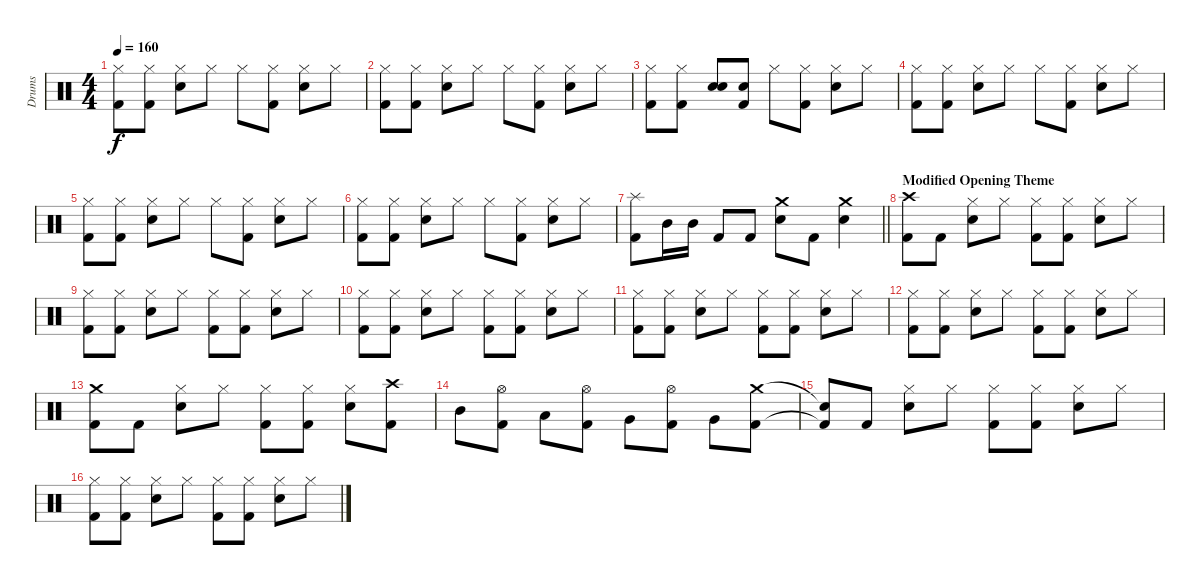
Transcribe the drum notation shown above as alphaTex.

\track ("Drums" "Drums") {instrument percussion}
\staff {score}
\articulation defaults
\ts (4 4)
\tempo 160
\clef neutral
\ks c
("Hi-Hat (closed)" "Kick (hit) 2").8{dy f} ("Hi-Hat (closed)" "Kick (hit) 2").8 ("Hi-Hat (closed)" "Snare (hit) 2").8 "Hi-Hat (closed)".8 "Hi-Hat (closed)".8 ("Hi-Hat (closed)" "Kick (hit) 2").8 ("Hi-Hat (closed)" "Snare (hit) 2").8 "Hi-Hat (closed)".8 |
("Hi-Hat (closed)" "Kick (hit) 2").8 ("Hi-Hat (closed)" "Kick (hit) 2").8 ("Hi-Hat (closed)" "Snare (hit) 2").8 "Hi-Hat (closed)".8 "Hi-Hat (closed)".8 ("Hi-Hat (closed)" "Kick (hit) 2").8 ("Hi-Hat (closed)" "Snare (hit) 2").8 "Hi-Hat (closed)".8 |
("Hi-Hat (closed)" "Kick (hit) 2").8 ("Hi-Hat (closed)" "Kick (hit) 2").8 ("Snare (hit)" "Snare (hit) 2").8 ("Snare (hit)" "Kick (hit) 2").8 "Hi-Hat (closed)".8 ("Hi-Hat (closed)" "Kick (hit) 2").8 ("Hi-Hat (closed)" "Snare (hit) 2").8 "Hi-Hat (closed)".8 |
("Hi-Hat (closed)" "Kick (hit) 2").8 ("Hi-Hat (closed)" "Kick (hit) 2").8 ("Hi-Hat (closed)" "Snare (hit) 2").8 "Hi-Hat (closed)".8 "Hi-Hat (closed)".8 ("Hi-Hat (closed)" "Kick (hit) 2").8 ("Hi-Hat (closed)" "Snare (hit) 2").8 "Hi-Hat (closed)".8 |
("Hi-Hat (closed)" "Kick (hit) 2").8 ("Hi-Hat (closed)" "Kick (hit) 2").8 ("Hi-Hat (closed)" "Snare (hit) 2").8 "Hi-Hat (closed)".8 "Hi-Hat (closed)".8 ("Hi-Hat (closed)" "Kick (hit) 2").8 ("Hi-Hat (closed)" "Snare (hit) 2").8 "Hi-Hat (closed)".8 |
("Hi-Hat (closed)" "Kick (hit) 2").8 ("Hi-Hat (closed)" "Kick (hit) 2").8 ("Hi-Hat (closed)" "Snare (hit) 2").8 "Hi-Hat (closed)".8 "Hi-Hat (closed)".8 ("Hi-Hat (closed)" "Kick (hit) 2").8 ("Hi-Hat (closed)" "Snare (hit) 2").8 "Hi-Hat (closed)".8 |
\barLineRight lightlight
("Splash (hit)" "Kick (hit) 2").8 "Mid Tom (hit)".16 "Mid Tom (hit)".16 "Kick (hit) 2".8 "Kick (hit) 2".8 ("Crash medium (hit)" "Snare (hit) 2").8 "Kick (hit) 2".8 ("Crash medium (hit)" "Snare (hit) 2").4 |
\section ("" "Modified Opening Theme")
("Crash high (hit)" "Kick (hit) 2").8 "Kick (hit) 2".8 ("Hi-Hat (closed)" "Snare (hit) 2").8 "Hi-Hat (closed)".8 ("Hi-Hat (closed)" "Kick (hit) 2").8 ("Hi-Hat (closed)" "Kick (hit) 2").8 ("Hi-Hat (closed)" "Snare (hit) 2").8 "Hi-Hat (closed)".8 |
("Hi-Hat (closed)" "Kick (hit) 2").8 ("Hi-Hat (closed)" "Kick (hit) 2").8 ("Hi-Hat (closed)" "Snare (hit) 2").8 "Hi-Hat (closed)".8 ("Hi-Hat (closed)" "Kick (hit) 2").8 ("Hi-Hat (closed)" "Kick (hit) 2").8 ("Hi-Hat (closed)" "Snare (hit) 2").8 "Hi-Hat (closed)".8 |
("Hi-Hat (closed)" "Kick (hit) 2").8 ("Hi-Hat (closed)" "Kick (hit) 2").8 ("Hi-Hat (closed)" "Snare (hit) 2").8 "Hi-Hat (closed)".8 ("Hi-Hat (closed)" "Kick (hit) 2").8 ("Hi-Hat (closed)" "Kick (hit) 2").8 ("Hi-Hat (closed)" "Snare (hit) 2").8 "Hi-Hat (closed)".8 |
("Hi-Hat (closed)" "Kick (hit) 2").8 ("Hi-Hat (closed)" "Kick (hit) 2").8 ("Hi-Hat (closed)" "Snare (hit) 2").8 "Hi-Hat (closed)".8 ("Hi-Hat (closed)" "Kick (hit) 2").8 ("Hi-Hat (closed)" "Kick (hit) 2").8 ("Hi-Hat (closed)" "Snare (hit) 2").8 "Hi-Hat (closed)".8 |
("Hi-Hat (closed)" "Kick (hit) 2").8 ("Hi-Hat (closed)" "Kick (hit) 2").8 ("Hi-Hat (closed)" "Snare (hit) 2").8 "Hi-Hat (closed)".8 ("Hi-Hat (closed)" "Kick (hit) 2").8 ("Hi-Hat (closed)" "Kick (hit) 2").8 ("Hi-Hat (closed)" "Snare (hit) 2").8 "Hi-Hat (closed)".8 |
("Crash medium (hit)" "Kick (hit) 2").8 "Kick (hit) 2".8 ("Hi-Hat (closed)" "Snare (hit) 2").8 "Hi-Hat (closed)".8 ("Hi-Hat (closed)" "Kick (hit) 2").8 ("Hi-Hat (closed)" "Kick (hit) 2").8 ("Hi-Hat (closed)" "Snare (hit) 2").8 ("Crash high (hit)" "Kick (hit) 2").8 |
"Mid Tom (hit)".8 ("Hi-Hat (open)" "Kick (hit) 2").8 "Low Tom (hit)".8 ("Hi-Hat (open)" "Kick (hit) 2").8 "Very Low Tom (hit)".8 ("Hi-Hat (open)" "Kick (hit) 2").8 "Very Low Tom (hit)".8 ("Crash medium (hit)" "Kick (hit) 2").8 |
("Snare (hit)"{t} "Kick (hit) 2"{t}).8 "Kick (hit) 2".8 ("Hi-Hat (closed)" "Snare (hit) 2").8 "Hi-Hat (closed)".8 ("Hi-Hat (closed)" "Kick (hit) 2").8 ("Hi-Hat (closed)" "Kick (hit) 2").8 ("Hi-Hat (closed)" "Snare (hit) 2").8 "Hi-Hat (closed)".8 |
("Hi-Hat (closed)" "Kick (hit) 2").8 ("Hi-Hat (closed)" "Kick (hit) 2").8 ("Hi-Hat (closed)" "Snare (hit) 2").8 "Hi-Hat (closed)".8 ("Hi-Hat (closed)" "Kick (hit) 2").8 ("Hi-Hat (closed)" "Kick (hit) 2").8 ("Hi-Hat (closed)" "Snare (hit) 2").8 "Hi-Hat (closed)".8
